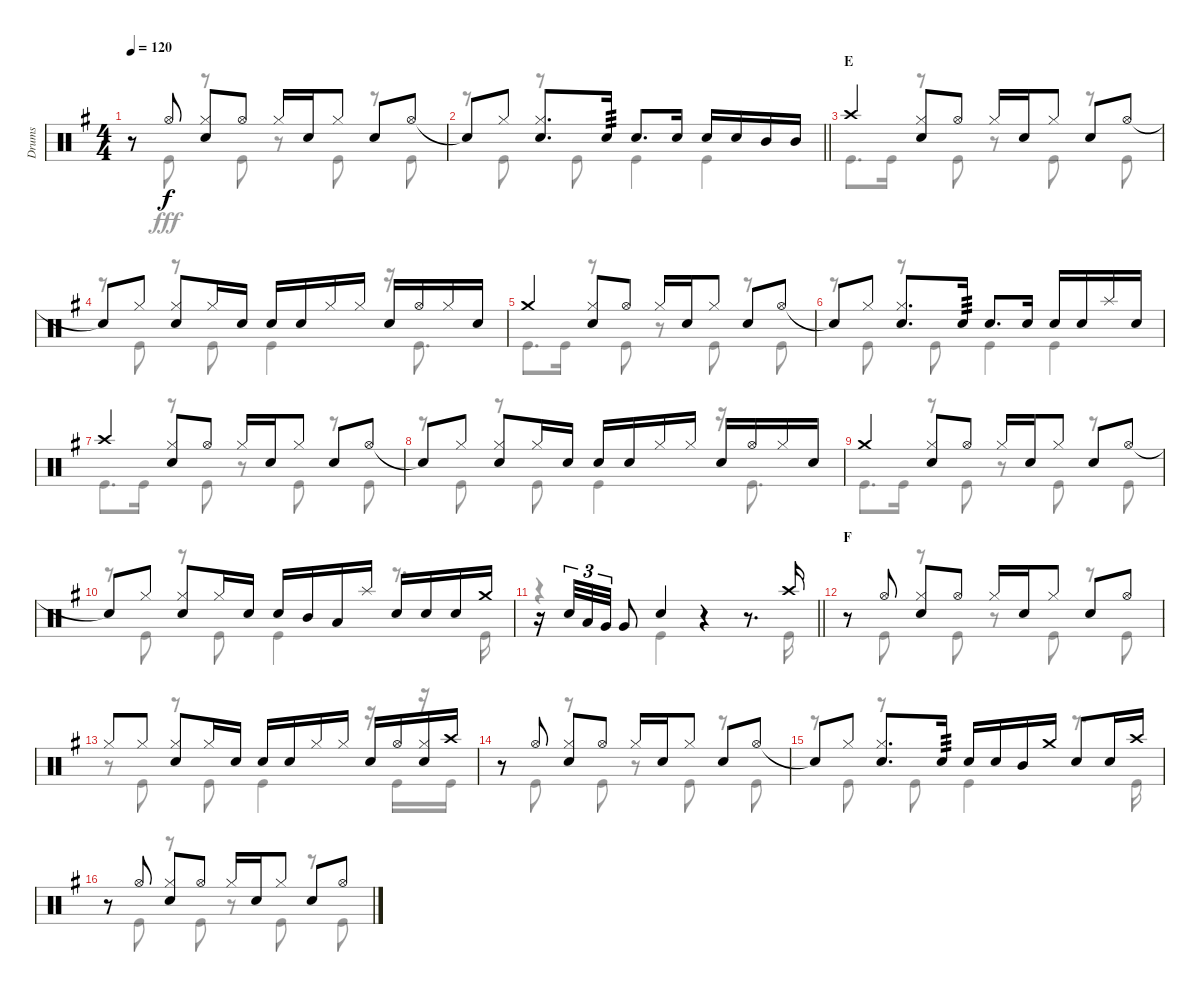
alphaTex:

\track ("Drums" "Drums") {instrument percussion}
\staff {score}
\articulation defaults
\voice
\ts (4 4)
\tempo 120
\clef neutral
\ks g
r.8{dy f} "Hi-Hat (open)".8 ("Hi-Hat (closed)" "Snare (hit) 2").8 "Hi-Hat (open)".8 "Hi-Hat (closed)".16 "Snare (hit) 2".16 "Hi-Hat (closed)".8 "Snare (hit) 2".8 "Hi-Hat (open)".8 |
\barLineRight lightlight "Snare (hit)"{t}.8 "Hi-Hat (closed)".8
("Hi-Hat (closed)" "Snare (hit) 2").8{d} "Snare (hit) 2".16{tp 3} "Snare (hit) 2".8{d} "Snare (hit) 2".16 "Snare (hit) 2".16 "Snare (hit) 2".16 "Mid Tom (hit)".16 "Mid Tom (hit)".16 |
\section ("" "E")
"Crash high (hit)".4 ("Hi-Hat (closed)" "Snare (hit) 2").8 "Hi-Hat (open)".8 "Hi-Hat (closed)".16 "Snare (hit) 2".16 "Hi-Hat (closed)".8 "Snare (hit) 2".8 "Hi-Hat (open)".8 |
"Snare (hit)"{t}.8 "Hi-Hat (closed)".8 ("Hi-Hat (closed)" "Snare (hit) 2").8 "Hi-Hat (closed)".16 "Snare (hit) 2".16 "Snare (hit) 2".16 "Snare (hit) 2".16 "Hi-Hat (closed)".16 "Hi-Hat (closed)".16 "Snare (hit) 2".16 "Hi-Hat (open)".16 "Hi-Hat (closed)".16 "Snare (hit) 2".16 |
"Crash medium (hit)".4 ("Hi-Hat (closed)" "Snare (hit) 2").8 "Hi-Hat (open)".8 "Hi-Hat (closed)".16 "Snare (hit) 2".16 "Hi-Hat (closed)".8 "Snare (hit) 2".8 "Hi-Hat (open)".8 |
"Snare (hit)"{t}.8 "Hi-Hat (closed)".8 ("Hi-Hat (closed)" "Snare (hit) 2").8{d} "Snare (hit) 2".16{tp 3} "Snare (hit) 2".8{d} "Snare (hit) 2".16 "Snare (hit) 2".16 "Snare (hit) 2".16 "Splash (hit)".16 "Snare (hit) 2".16 |
"Crash high (hit)".4 ("Hi-Hat (closed)" "Snare (hit) 2").8 "Hi-Hat (open)".8 "Hi-Hat (closed)".16 "Snare (hit) 2".16 "Hi-Hat (closed)".8 "Snare (hit) 2".8 "Hi-Hat (open)".8 |
"Snare (hit)"{t}.8 "Hi-Hat (closed)".8 ("Hi-Hat (closed)" "Snare (hit) 2").8 "Hi-Hat (closed)".16 "Snare (hit) 2".16 "Snare (hit) 2".16 "Snare (hit) 2".16 "Hi-Hat (closed)".16 "Hi-Hat (closed)".16 "Snare (hit) 2".16 "Hi-Hat (open)".16 "Hi-Hat (closed)".16 "Snare (hit) 2".16 |
"Crash medium (hit)".4 ("Hi-Hat (closed)" "Snare (hit) 2").8 "Hi-Hat (open)".8 "Hi-Hat (closed)".16 "Snare (hit) 2".16 "Hi-Hat (closed)".8 "Snare (hit) 2".8 "Hi-Hat (open)".8 |
"Snare (hit)"{t}.8 "Hi-Hat (closed)".8 ("Hi-Hat (closed)" "Snare (hit) 2").8 "Hi-Hat (closed)".16 "Snare (hit) 2".16 "Snare (hit) 2".16 "Mid Tom (hit)".16 "Low Tom (hit)".16 "Splash (hit)".16 "Snare (hit) 2".16 "Snare (hit) 2".16 "Snare (hit) 2".16 "Crash medium (hit)".16 |
\barLineRight lightlight
r.16 "Snare (hit) 2".32{tu (3 2)} "Low Tom (hit)".32{tu (3 2)} "Very Low Tom (hit)".32{tu (3 2)} "Very Low Tom (hit)".8 "Snare (hit) 2".4 r.4 r.8{d} "Crash high (hit)".16 |
\section ("" "F")
r.8 "Hi-Hat (open)".8 ("Hi-Hat (closed)" "Snare (hit) 2").8 "Hi-Hat (open)".8 "Hi-Hat (closed)".16 "Snare (hit) 2".16 "Hi-Hat (closed)".8 "Snare (hit) 2".8 "Hi-Hat (open)".8 |
"Hi-Hat (closed)".8 "Hi-Hat (closed)".8 ("Hi-Hat (closed)" "Snare (hit) 2").8 "Hi-Hat (closed)".16 "Snare (hit) 2".16 "Snare (hit) 2".16 "Snare (hit) 2".16 "Hi-Hat (closed)".16 "Hi-Hat (closed)".16 "Snare (hit) 2".16 "Hi-Hat (open)".16 ("Hi-Hat (closed)" "Snare (hit) 2").16 "Crash high (hit)".16 |
r.8 "Hi-Hat (open)".8 ("Hi-Hat (closed)" "Snare (hit) 2").8 "Hi-Hat (open)".8 "Hi-Hat (closed)".16 "Snare (hit) 2".16 "Hi-Hat (closed)".8 "Snare (hit) 2".8 "Hi-Hat (open)".8 |
"Snare (hit)"{t}.8 "Hi-Hat (closed)".8 ("Hi-Hat (closed)" "Snare (hit) 2").8{d} "Snare (hit) 2".16{tp 3} "Snare (hit) 2".16 "Snare (hit) 2".16 "Mid Tom (hit)".16 "Crash medium (hit)".16 "Snare (hit) 2".8 "Snare (hit) 2".16 "Crash high (hit)".16 |
r.8 "Hi-Hat (open)".8 ("Hi-Hat (closed)" "Snare (hit) 2").8 "Hi-Hat (open)".8 "Hi-Hat (closed)".16 "Snare (hit) 2".16 "Hi-Hat (closed)".8 "Snare (hit) 2".8 "Hi-Hat (open)".8
\voice
\clef neutral
\ottava regular
\simile none
\ks g
r.8{dy fff} "Kick (hit)".8 r.8 "Kick (hit)".8 r.8 "Kick (hit)".8 r.8 "Kick (hit)".8 |
\barLineRight lightlight
r.8 "Kick (hit)".8 r.8 "Kick (hit)".8 "Kick (hit)".4 "Kick (hit)".4 |
"Kick (hit)".8{d} "Kick (hit)".16 r.8 "Kick (hit)".8 r.8 "Kick (hit)".8 r.8 "Kick (hit)".8 |
r.8 "Kick (hit)".8 r.8 "Kick (hit)".8 "Kick (hit)".4 r.16 "Kick (hit)".8{d} |
"Kick (hit)".8{d} "Kick (hit)".16 r.8 "Kick (hit)".8 r.8 "Kick (hit)".8 r.8 "Kick (hit)".8 |
r.8 "Kick (hit)".8 r.8 "Kick (hit)".8 "Kick (hit)".4 "Kick (hit)".4 |
"Kick (hit)".8{d} "Kick (hit)".16 r.8 "Kick (hit)".8 r.8 "Kick (hit)".8 r.8 "Kick (hit)".8 |
r.8 "Kick (hit)".8 r.8 "Kick (hit)".8 "Kick (hit)".4 r.16 "Kick (hit)".8{d} |
"Kick (hit)".8{d} "Kick (hit)".16 r.8 "Kick (hit)".8 r.8 "Kick (hit)".8 r.8 "Kick (hit)".8 |
r.8 "Kick (hit)".8 r.8 "Kick (hit)".8 "Kick (hit)".4 r.8{d} "Kick (hit)".16 |
\barLineRight lightlight
r.4 "Kick (hit)".4 r.4 r.8{d} "Kick (hit)".16 |
r.8 "Kick (hit)".8 r.8 "Kick (hit)".8 r.8 "Kick (hit)".8 r.8 "Kick (hit)".8 |
r.8 "Kick (hit)".8 r.8 "Kick (hit)".8 "Kick (hit)".4 r.16 "Kick (hit)".16 r.16 "Kick (hit)".16 |
r.8 "Kick (hit)".8 r.8 "Kick (hit)".8 r.8 "Kick (hit)".8 r.8 "Kick (hit)".8 |
r.8 "Kick (hit)".8 r.8 "Kick (hit)".8 "Kick (hit)".4 r.8{d} "Kick (hit)".16 |
r.8 "Kick (hit)".8 r.8 "Kick (hit)".8 r.8 "Kick (hit)".8 r.8 "Kick (hit)".8
